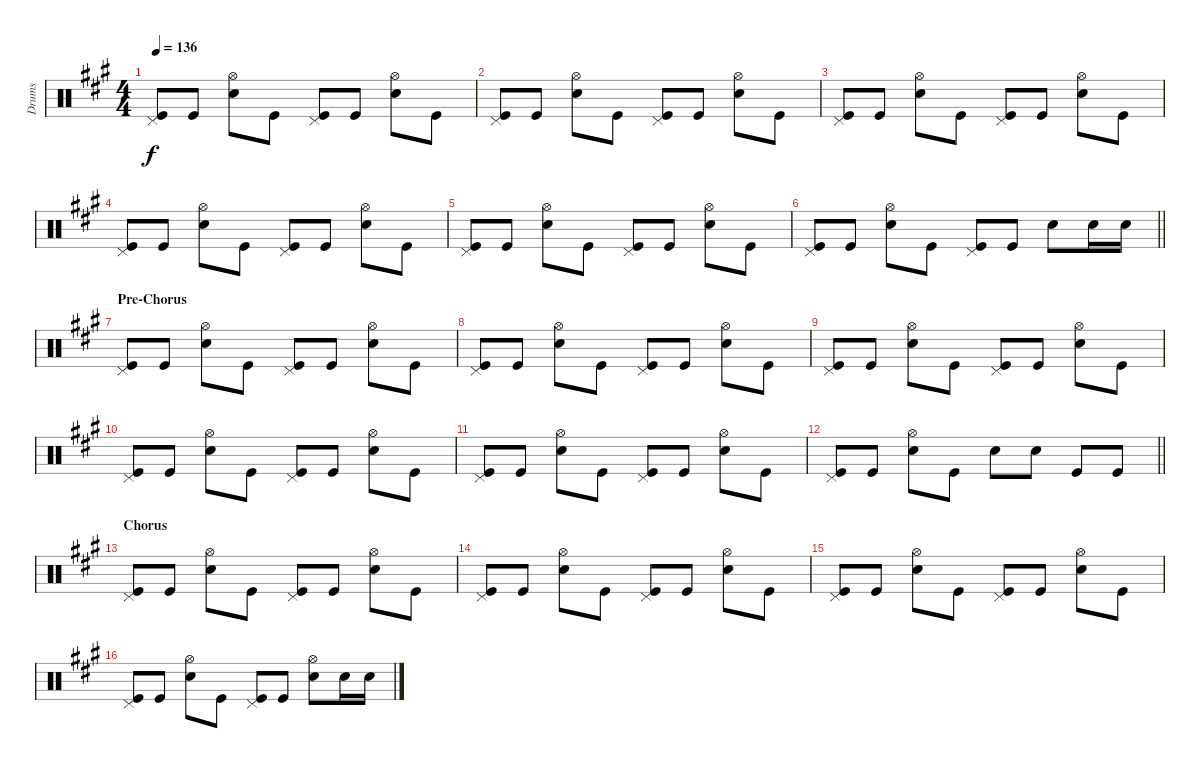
\track ("Drums" "Drums") {instrument percussion}
\staff {score}
\articulation defaults
\ts (4 4)
\tempo 136
\clef neutral
\ks a
("Pedal Hi-Hat (hit)" "Kick (hit)").8{dy f} "Kick (hit)".8 ("Hi-Hat (open)" "Snare (hit) 2").8 "Kick (hit)".8 ("Pedal Hi-Hat (hit)" "Kick (hit)").8 "Kick (hit)".8 ("Hi-Hat (open)" "Snare (hit) 2").8 "Kick (hit)".8 |
("Pedal Hi-Hat (hit)" "Kick (hit)").8 "Kick (hit)".8 ("Hi-Hat (open)" "Snare (hit) 2").8 "Kick (hit)".8 ("Pedal Hi-Hat (hit)" "Kick (hit)").8 "Kick (hit)".8 ("Hi-Hat (open)" "Snare (hit) 2").8 "Kick (hit)".8 |
("Pedal Hi-Hat (hit)" "Kick (hit)").8 "Kick (hit)".8 ("Hi-Hat (open)" "Snare (hit) 2").8 "Kick (hit)".8 ("Pedal Hi-Hat (hit)" "Kick (hit)").8 "Kick (hit)".8 ("Hi-Hat (open)" "Snare (hit) 2").8 "Kick (hit)".8 |
("Pedal Hi-Hat (hit)" "Kick (hit)").8 "Kick (hit)".8 ("Hi-Hat (open)" "Snare (hit) 2").8 "Kick (hit)".8 ("Pedal Hi-Hat (hit)" "Kick (hit)").8 "Kick (hit)".8 ("Hi-Hat (open)" "Snare (hit) 2").8 "Kick (hit)".8 |
("Pedal Hi-Hat (hit)" "Kick (hit)").8 "Kick (hit)".8 ("Hi-Hat (open)" "Snare (hit) 2").8 "Kick (hit)".8 ("Pedal Hi-Hat (hit)" "Kick (hit)").8 "Kick (hit)".8 ("Hi-Hat (open)" "Snare (hit) 2").8 "Kick (hit)".8 |
\barLineRight lightlight
("Pedal Hi-Hat (hit)" "Kick (hit)").8 "Kick (hit)".8 ("Hi-Hat (open)" "Snare (hit) 2").8 "Kick (hit)".8 ("Pedal Hi-Hat (hit)" "Kick (hit)").8 "Kick (hit)".8 "Snare (hit) 2".8 "Snare (hit) 2".16 "Snare (hit) 2".16 |
\section ("" "Pre-Chorus")
("Pedal Hi-Hat (hit)" "Kick (hit)").8 "Kick (hit)".8 ("Hi-Hat (open)" "Snare (hit) 2").8 "Kick (hit)".8 ("Pedal Hi-Hat (hit)" "Kick (hit)").8 "Kick (hit)".8 ("Hi-Hat (open)" "Snare (hit) 2").8 "Kick (hit)".8 |
("Pedal Hi-Hat (hit)" "Kick (hit)").8 "Kick (hit)".8 ("Hi-Hat (open)" "Snare (hit) 2").8 "Kick (hit)".8 ("Pedal Hi-Hat (hit)" "Kick (hit)").8 "Kick (hit)".8 ("Hi-Hat (open)" "Snare (hit) 2").8 "Kick (hit)".8 |
("Pedal Hi-Hat (hit)" "Kick (hit)").8 "Kick (hit)".8 ("Hi-Hat (open)" "Snare (hit) 2").8 "Kick (hit)".8 ("Pedal Hi-Hat (hit)" "Kick (hit)").8 "Kick (hit)".8 ("Hi-Hat (open)" "Snare (hit) 2").8 "Kick (hit)".8 |
("Pedal Hi-Hat (hit)" "Kick (hit)").8 "Kick (hit)".8 ("Hi-Hat (open)" "Snare (hit) 2").8 "Kick (hit)".8 ("Pedal Hi-Hat (hit)" "Kick (hit)").8 "Kick (hit)".8 ("Hi-Hat (open)" "Snare (hit) 2").8 "Kick (hit)".8 |
("Pedal Hi-Hat (hit)" "Kick (hit)").8 "Kick (hit)".8 ("Hi-Hat (open)" "Snare (hit) 2").8 "Kick (hit)".8 ("Pedal Hi-Hat (hit)" "Kick (hit)").8 "Kick (hit)".8 ("Hi-Hat (open)" "Snare (hit) 2").8 "Kick (hit)".8 |
\barLineRight lightlight
("Pedal Hi-Hat (hit)" "Kick (hit)").8 "Kick (hit)".8 ("Hi-Hat (open)" "Snare (hit) 2").8 "Kick (hit)".8 "Snare (hit) 2".8 "Snare (hit) 2".8 "Kick (hit)".8 "Kick (hit)".8 |
\section ("" "Chorus")
("Pedal Hi-Hat (hit)" "Kick (hit)").8 "Kick (hit)".8 ("Hi-Hat (open)" "Snare (hit) 2").8 "Kick (hit)".8 ("Pedal Hi-Hat (hit)" "Kick (hit)").8 "Kick (hit)".8 ("Hi-Hat (open)" "Snare (hit) 2").8 "Kick (hit)".8 |
("Pedal Hi-Hat (hit)" "Kick (hit)").8 "Kick (hit)".8 ("Hi-Hat (open)" "Snare (hit) 2").8 "Kick (hit)".8 ("Pedal Hi-Hat (hit)" "Kick (hit)").8 "Kick (hit)".8 ("Hi-Hat (open)" "Snare (hit) 2").8 "Kick (hit)".8 |
("Pedal Hi-Hat (hit)" "Kick (hit)").8 "Kick (hit)".8 ("Hi-Hat (open)" "Snare (hit) 2").8 "Kick (hit)".8 ("Pedal Hi-Hat (hit)" "Kick (hit)").8 "Kick (hit)".8 ("Hi-Hat (open)" "Snare (hit) 2").8 "Kick (hit)".8 |
("Pedal Hi-Hat (hit)" "Kick (hit)").8 "Kick (hit)".8 ("Hi-Hat (open)" "Snare (hit) 2").8 "Kick (hit)".8 ("Pedal Hi-Hat (hit)" "Kick (hit)").8 "Kick (hit)".8 ("Hi-Hat (open)" "Snare (hit) 2").8 "Snare (hit) 2".16 "Snare (hit) 2".16
